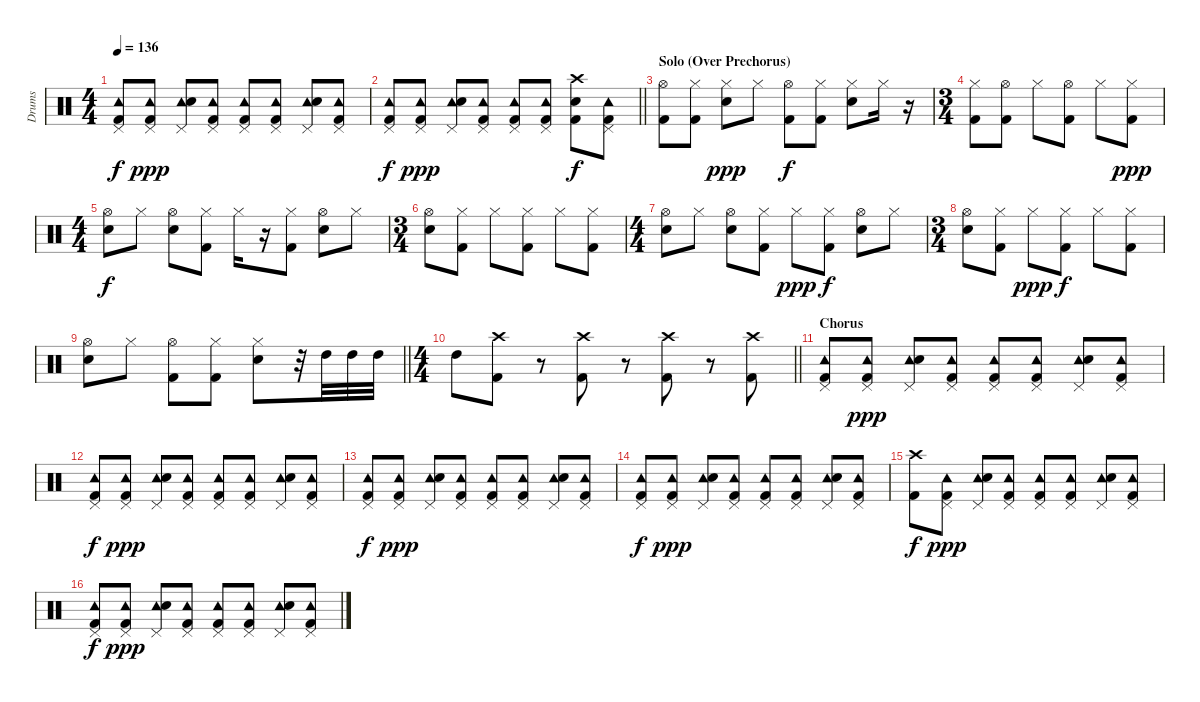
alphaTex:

\track ("Drums" "Drums") {instrument percussion}
\staff {score}
\articulation defaults
\ts (4 4)
\tempo 136
\clef neutral
\ks c
("Pedal Hi-Hat (hit)" "Tambourine (hit)" "Kick (hit) 2").8{dy f} ("Pedal Hi-Hat (hit)" "Tambourine (hit)" "Kick (hit) 2").8{dy ppp} ("Pedal Hi-Hat (hit)" "Tambourine (hit)" "Snare (hit) 2").8 ("Pedal Hi-Hat (hit)" "Tambourine (hit)" "Kick (hit) 2").8 ("Pedal Hi-Hat (hit)" "Tambourine (hit)" "Kick (hit) 2").8 ("Pedal Hi-Hat (hit)" "Tambourine (hit)" "Kick (hit) 2").8 ("Pedal Hi-Hat (hit)" "Tambourine (hit)" "Snare (hit) 2").8 ("Pedal Hi-Hat (hit)" "Tambourine (hit)" "Kick (hit) 2").8 |
\barLineRight lightlight
("Pedal Hi-Hat (hit)" "Tambourine (hit)" "Kick (hit) 2").8{dy f} ("Pedal Hi-Hat (hit)" "Tambourine (hit)" "Kick (hit) 2").8{dy ppp} ("Pedal Hi-Hat (hit)" "Tambourine (hit)" "Snare (hit) 2").8 ("Pedal Hi-Hat (hit)" "Tambourine (hit)" "Kick (hit) 2").8 ("Pedal Hi-Hat (hit)" "Tambourine (hit)" "Kick (hit) 2").8 ("Pedal Hi-Hat (hit)" "Tambourine (hit)" "Kick (hit) 2").8 ("Crash high (hit)" "Snare (hit) 2" "Kick (hit) 2").8{dy f} ("Pedal Hi-Hat (hit)" "Tambourine (hit)" "Kick (hit) 2").8 |
\section ("" "Solo (Over Prechorus)")
("Hi-Hat (open)" "Kick (hit) 2").8 ("Hi-Hat (closed)" "Kick (hit) 2").8 ("Hi-Hat (closed)" "Snare (hit) 2").8{dy ppp} "Hi-Hat (closed)".8 ("Hi-Hat (open)" "Kick (hit) 2").8{dy f} ("Hi-Hat (closed)" "Kick (hit) 2").8 ("Hi-Hat (closed)" "Snare (hit) 2").8 "Hi-Hat (closed)".16 r.16 |
\ts (3 4)
("Hi-Hat (closed)" "Kick (hit) 2").8 ("Hi-Hat (open)" "Kick (hit) 2").8 "Hi-Hat (closed)".8 ("Hi-Hat (open)" "Kick (hit) 2").8 "Hi-Hat (closed)".8 ("Hi-Hat (closed)" "Kick (hit) 2").8{dy ppp} |
\ts (4 4)
("Hi-Hat (open)" "Snare (hit) 2").8{dy f} "Hi-Hat (closed)".8 ("Hi-Hat (open)" "Snare (hit) 2").8 ("Hi-Hat (closed)" "Kick (hit) 2").8 "Hi-Hat (closed)".16 r.16 ("Hi-Hat (closed)" "Kick (hit) 2").8 ("Hi-Hat (open)" "Snare (hit) 2").8 "Hi-Hat (closed)".8 |
\ts (3 4)
("Hi-Hat (open)" "Snare (hit) 2").8 ("Hi-Hat (closed)" "Kick (hit) 2").8 "Hi-Hat (closed)".8 ("Hi-Hat (closed)" "Kick (hit) 2").8 "Hi-Hat (closed)".8 ("Hi-Hat (closed)" "Kick (hit) 2").8 |
\ts (4 4)
("Hi-Hat (open)" "Snare (hit) 2").8 "Hi-Hat (closed)".8 ("Hi-Hat (open)" "Snare (hit) 2").8 ("Hi-Hat (closed)" "Kick (hit) 2").8 "Hi-Hat (closed)".8{dy ppp} ("Hi-Hat (closed)" "Kick (hit) 2").8{dy f} ("Hi-Hat (open)" "Snare (hit) 2").8 "Hi-Hat (closed)".8 |
\ts (3 4)
("Hi-Hat (open)" "Snare (hit) 2").8 ("Hi-Hat (closed)" "Kick (hit) 2").8 "Hi-Hat (closed)".8{dy ppp} ("Hi-Hat (closed)" "Kick (hit) 2").8{dy f} "Hi-Hat (closed)".8 ("Hi-Hat (closed)" "Kick (hit) 2").8 |
\barLineRight lightlight
("Hi-Hat (open)" "Snare (hit) 2").8 "Hi-Hat (closed)".8 ("Hi-Hat (open)" "Kick (hit) 2").8 ("Hi-Hat (closed)" "Kick (hit) 2").8 ("Hi-Hat (closed)" "Snare (hit) 2").8 r.32 "High Tom (hit)".32 "High Tom (hit)".32 "High Tom (hit)".32 |
\ts (4 4)
\barLineRight lightlight "High Tom (hit)".8
("Crash high (hit)" "Kick (hit) 2").8 r.8 ("Crash high (hit)" "Kick (hit) 2").8 r.8 ("Crash high (hit)" "Kick (hit) 2").8 r.8 ("Crash high (hit)" "Kick (hit) 2").8 |
\section ("" "Chorus")
("Pedal Hi-Hat (hit)" "Tambourine (hit)" "Kick (hit) 2").8 ("Pedal Hi-Hat (hit)" "Tambourine (hit)" "Kick (hit) 2").8{dy ppp} ("Pedal Hi-Hat (hit)" "Tambourine (hit)" "Snare (hit) 2").8 ("Pedal Hi-Hat (hit)" "Tambourine (hit)" "Kick (hit) 2").8 ("Pedal Hi-Hat (hit)" "Tambourine (hit)" "Kick (hit) 2").8 ("Pedal Hi-Hat (hit)" "Tambourine (hit)" "Kick (hit) 2").8 ("Pedal Hi-Hat (hit)" "Tambourine (hit)" "Snare (hit) 2").8 ("Pedal Hi-Hat (hit)" "Tambourine (hit)" "Kick (hit) 2").8 |
("Pedal Hi-Hat (hit)" "Tambourine (hit)" "Kick (hit) 2").8{dy f} ("Pedal Hi-Hat (hit)" "Tambourine (hit)" "Kick (hit) 2").8{dy ppp} ("Pedal Hi-Hat (hit)" "Tambourine (hit)" "Snare (hit) 2").8 ("Pedal Hi-Hat (hit)" "Tambourine (hit)" "Kick (hit) 2").8 ("Pedal Hi-Hat (hit)" "Tambourine (hit)" "Kick (hit) 2").8 ("Pedal Hi-Hat (hit)" "Tambourine (hit)" "Kick (hit) 2").8 ("Pedal Hi-Hat (hit)" "Tambourine (hit)" "Snare (hit) 2").8 ("Pedal Hi-Hat (hit)" "Tambourine (hit)" "Kick (hit) 2").8 |
("Pedal Hi-Hat (hit)" "Tambourine (hit)" "Kick (hit) 2").8{dy f} ("Pedal Hi-Hat (hit)" "Tambourine (hit)" "Kick (hit) 2").8{dy ppp} ("Pedal Hi-Hat (hit)" "Tambourine (hit)" "Snare (hit) 2").8 ("Pedal Hi-Hat (hit)" "Tambourine (hit)" "Kick (hit) 2").8 ("Pedal Hi-Hat (hit)" "Tambourine (hit)" "Kick (hit) 2").8 ("Pedal Hi-Hat (hit)" "Tambourine (hit)" "Kick (hit) 2").8 ("Pedal Hi-Hat (hit)" "Tambourine (hit)" "Snare (hit) 2").8 ("Pedal Hi-Hat (hit)" "Tambourine (hit)" "Kick (hit) 2").8 |
("Pedal Hi-Hat (hit)" "Tambourine (hit)" "Kick (hit) 2").8{dy f} ("Pedal Hi-Hat (hit)" "Tambourine (hit)" "Kick (hit) 2").8{dy ppp} ("Pedal Hi-Hat (hit)" "Tambourine (hit)" "Snare (hit) 2").8 ("Pedal Hi-Hat (hit)" "Tambourine (hit)" "Kick (hit) 2").8 ("Pedal Hi-Hat (hit)" "Tambourine (hit)" "Kick (hit) 2").8 ("Pedal Hi-Hat (hit)" "Tambourine (hit)" "Kick (hit) 2").8 ("Pedal Hi-Hat (hit)" "Tambourine (hit)" "Snare (hit) 2").8 ("Pedal Hi-Hat (hit)" "Tambourine (hit)" "Kick (hit) 2").8 |
("Crash high (hit)" "Kick (hit) 2").8{dy f} ("Pedal Hi-Hat (hit)" "Tambourine (hit)" "Kick (hit) 2").8{dy ppp} ("Pedal Hi-Hat (hit)" "Tambourine (hit)" "Snare (hit) 2").8 ("Pedal Hi-Hat (hit)" "Tambourine (hit)" "Kick (hit) 2").8 ("Pedal Hi-Hat (hit)" "Tambourine (hit)" "Kick (hit) 2").8 ("Pedal Hi-Hat (hit)" "Tambourine (hit)" "Kick (hit) 2").8 ("Pedal Hi-Hat (hit)" "Tambourine (hit)" "Snare (hit) 2").8 ("Pedal Hi-Hat (hit)" "Tambourine (hit)" "Kick (hit) 2").8 |
("Pedal Hi-Hat (hit)" "Tambourine (hit)" "Kick (hit) 2").8{dy f} ("Pedal Hi-Hat (hit)" "Tambourine (hit)" "Kick (hit) 2").8{dy ppp} ("Pedal Hi-Hat (hit)" "Tambourine (hit)" "Snare (hit) 2").8 ("Pedal Hi-Hat (hit)" "Tambourine (hit)" "Kick (hit) 2").8 ("Pedal Hi-Hat (hit)" "Tambourine (hit)" "Kick (hit) 2").8 ("Pedal Hi-Hat (hit)" "Tambourine (hit)" "Kick (hit) 2").8 ("Pedal Hi-Hat (hit)" "Tambourine (hit)" "Snare (hit) 2").8 ("Pedal Hi-Hat (hit)" "Tambourine (hit)" "Kick (hit) 2").8
